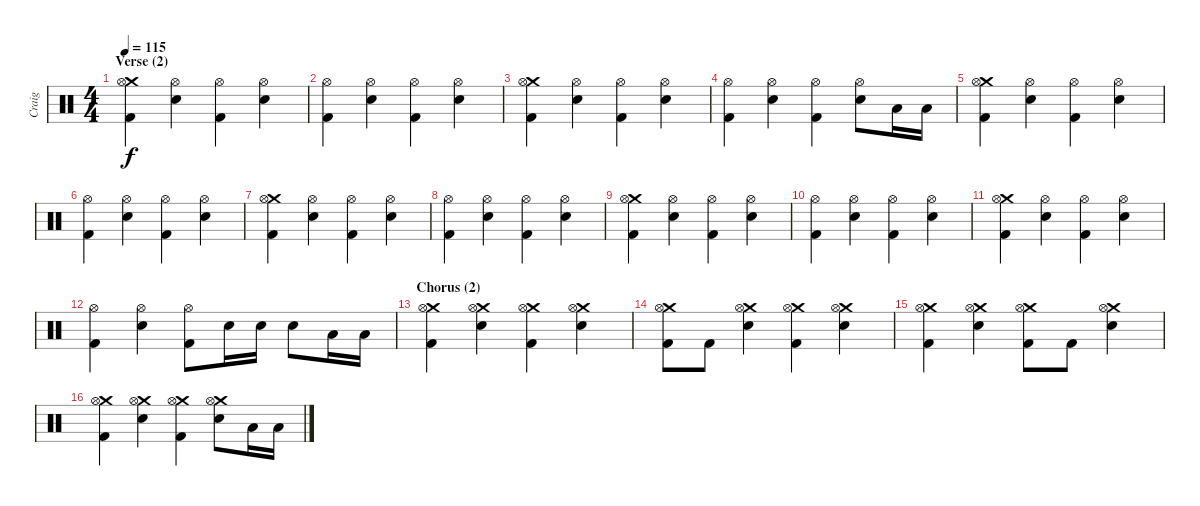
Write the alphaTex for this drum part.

\track ("Craig" "Craig") {instrument percussion}
\staff {score}
\articulation defaults
\ts (4 4)
\section ("" "Verse (2)")
\tempo 115
\clef neutral
\ks c
("Crash medium (hit)" "Hi-Hat (open)" "Kick (hit) 2").4{dy f} ("Hi-Hat (open)" "Electric Snare (hit)").4 ("Hi-Hat (open)" "Kick (hit) 2").4 ("Hi-Hat (open)" "Electric Snare (hit)").4 |
("Hi-Hat (open)" "Kick (hit) 2").4 ("Hi-Hat (open)" "Electric Snare (hit)").4 ("Hi-Hat (open)" "Kick (hit) 2").4 ("Hi-Hat (open)" "Electric Snare (hit)").4 |
("Crash medium (hit)" "Hi-Hat (open)" "Kick (hit) 2").4 ("Hi-Hat (open)" "Electric Snare (hit)").4 ("Hi-Hat (open)" "Kick (hit) 2").4 ("Hi-Hat (open)" "Electric Snare (hit)").4 |
("Hi-Hat (open)" "Kick (hit) 2").4 ("Hi-Hat (open)" "Electric Snare (hit)").4 ("Hi-Hat (open)" "Kick (hit) 2").4 ("Hi-Hat (open)" "Electric Snare (hit)").8 "Low Floor Tom (hit)".16 "Low Floor Tom (hit)".16 |
("Crash medium (hit)" "Hi-Hat (open)" "Kick (hit) 2").4 ("Hi-Hat (open)" "Electric Snare (hit)").4 ("Hi-Hat (open)" "Kick (hit) 2").4 ("Hi-Hat (open)" "Electric Snare (hit)").4 |
("Hi-Hat (open)" "Kick (hit) 2").4 ("Hi-Hat (open)" "Electric Snare (hit)").4 ("Hi-Hat (open)" "Kick (hit) 2").4 ("Hi-Hat (open)" "Electric Snare (hit)").4 |
("Crash medium (hit)" "Hi-Hat (open)" "Kick (hit) 2").4 ("Hi-Hat (open)" "Electric Snare (hit)").4 ("Hi-Hat (open)" "Kick (hit) 2").4 ("Hi-Hat (open)" "Electric Snare (hit)").4 |
("Hi-Hat (open)" "Kick (hit) 2").4 ("Hi-Hat (open)" "Electric Snare (hit)").4 ("Hi-Hat (open)" "Kick (hit) 2").4 ("Hi-Hat (open)" "Electric Snare (hit)").4 |
("Crash medium (hit)" "Hi-Hat (open)" "Kick (hit) 2").4 ("Hi-Hat (open)" "Electric Snare (hit)").4 ("Hi-Hat (open)" "Kick (hit) 2").4 ("Hi-Hat (open)" "Electric Snare (hit)").4 |
("Hi-Hat (open)" "Kick (hit) 2").4 ("Hi-Hat (open)" "Electric Snare (hit)").4 ("Hi-Hat (open)" "Kick (hit) 2").4 ("Hi-Hat (open)" "Electric Snare (hit)").4 |
("Crash medium (hit)" "Hi-Hat (open)" "Kick (hit) 2").4 ("Hi-Hat (open)" "Electric Snare (hit)").4 ("Hi-Hat (open)" "Kick (hit) 2").4 ("Hi-Hat (open)" "Electric Snare (hit)").4 |
("Hi-Hat (open)" "Kick (hit) 2").4 ("Hi-Hat (open)" "Electric Snare (hit)").4 ("Hi-Hat (open)" "Kick (hit) 2").8 "Electric Snare (hit)".16 "Electric Snare (hit)".16 "Electric Snare (hit)".8 "Low Floor Tom (hit)".16 "Low Floor Tom (hit)".16 |
\section ("" "Chorus (2)")
("Crash medium (hit)" "Hi-Hat (open)" "Kick (hit) 2").4 ("Crash medium (hit)" "Hi-Hat (open)" "Electric Snare (hit)").4 ("Crash medium (hit)" "Hi-Hat (open)" "Kick (hit) 2").4 ("Crash medium (hit)" "Hi-Hat (open)" "Electric Snare (hit)").4 |
("Crash medium (hit)" "Hi-Hat (open)" "Kick (hit) 2").8 "Kick (hit) 2".8 ("Crash medium (hit)" "Hi-Hat (open)" "Electric Snare (hit)").4 ("Crash medium (hit)" "Hi-Hat (open)" "Kick (hit) 2").4 ("Crash medium (hit)" "Hi-Hat (open)" "Electric Snare (hit)").4 |
("Crash medium (hit)" "Hi-Hat (open)" "Kick (hit) 2").4 ("Crash medium (hit)" "Hi-Hat (open)" "Electric Snare (hit)").4 ("Crash medium (hit)" "Hi-Hat (open)" "Kick (hit) 2").8 "Kick (hit) 2".8 ("Crash medium (hit)" "Hi-Hat (open)" "Electric Snare (hit)").4 |
("Crash medium (hit)" "Hi-Hat (open)" "Kick (hit) 2").4 ("Crash medium (hit)" "Hi-Hat (open)" "Electric Snare (hit)").4 ("Crash medium (hit)" "Hi-Hat (open)" "Kick (hit) 2").4 ("Crash medium (hit)" "Hi-Hat (open)" "Electric Snare (hit)").8 "Low Floor Tom (hit)".16 "Low Floor Tom (hit)".16
